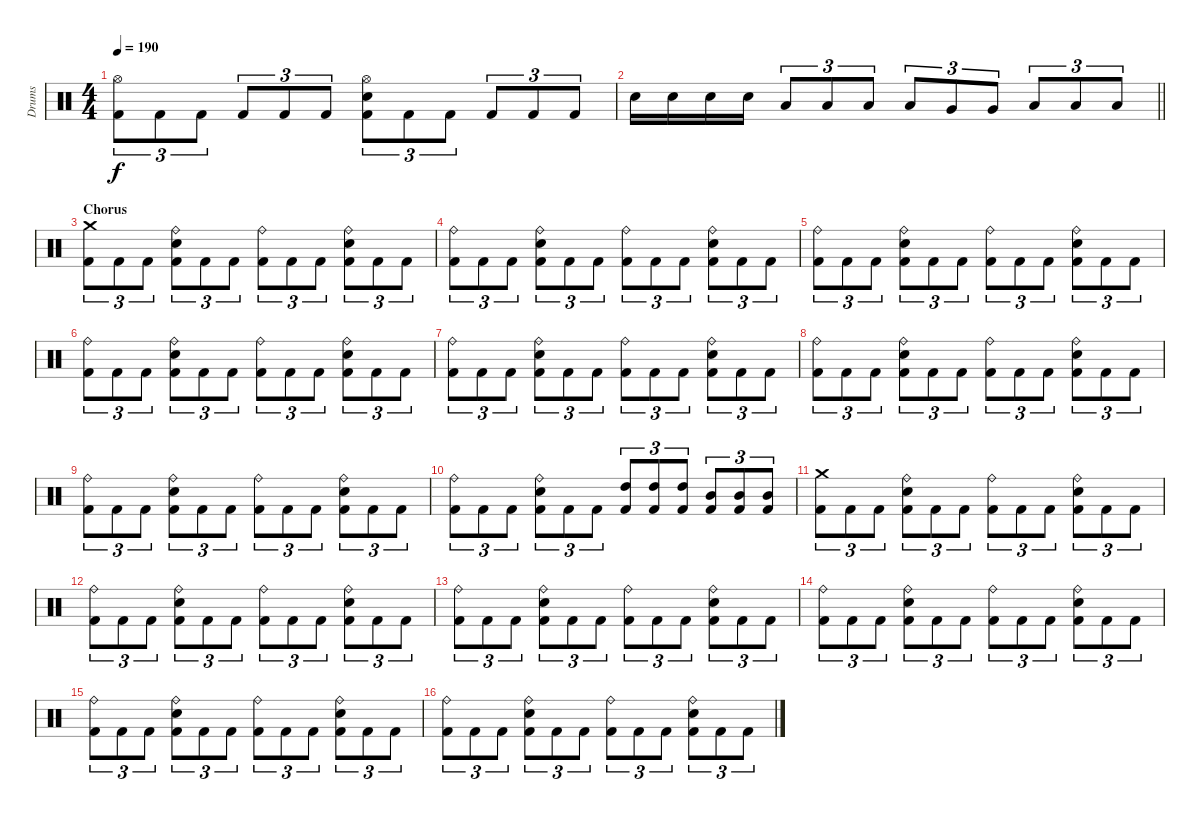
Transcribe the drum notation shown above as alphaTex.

\track ("Drums" "Drums") {instrument percussion}
\staff {score}
\articulation defaults
\ts (4 4)
\tempo 190
\clef neutral
\ks c
("Hi-Hat (open)" "Kick (hit) 2").8{tu (3 2) dy f} "Kick (hit) 2".8{tu (3 2)} "Kick (hit) 2".8{tu (3 2)} "Kick (hit) 2".8{tu (3 2)} "Kick (hit) 2".8{tu (3 2)} "Kick (hit) 2".8{tu (3 2)} ("Hi-Hat (open)" "Electric Snare (hit)" "Kick (hit) 2").8{tu (3 2)} "Kick (hit) 2".8{tu (3 2)} "Kick (hit) 2".8{tu (3 2)} "Kick (hit) 2".8{tu (3 2)} "Kick (hit) 2".8{tu (3 2)} "Kick (hit) 2".8{tu (3 2)} |
\barLineRight lightlight "Electric Snare (hit)".16 "Electric Snare (hit)".16 "Electric Snare (hit)".16 "Electric Snare (hit)".16 "Low Tom (hit)".8{tu (3 2)} "Low Tom (hit)".8{tu (3 2)} "Low Tom (hit)".8{tu (3 2)} "Low Tom (hit)".8{tu (3 2)} "Very Low Tom (hit)".8{tu (3 2)} "Very Low Tom (hit)".8{tu (3 2)} "Low Floor Tom (hit)".8{tu (3 2)} "Low Floor Tom (hit)".8{tu (3 2)} "Low Floor Tom (hit)".8{tu (3 2)}
|
\section ("" "Chorus")
("Crash medium (hit)" "Kick (hit) 2").8{tu (3 2)} "Kick (hit) 2".8{tu (3 2)} "Kick (hit) 2".8{tu (3 2)} ("Ride (bell)" "Electric Snare (hit)" "Kick (hit) 2").8{tu (3 2)} "Kick (hit) 2".8{tu (3 2)} "Kick (hit) 2".8{tu (3 2)} ("Ride (bell)" "Kick (hit) 2").8{tu (3 2)} "Kick (hit) 2".8{tu (3 2)} "Kick (hit) 2".8{tu (3 2)} ("Ride (bell)" "Electric Snare (hit)" "Kick (hit) 2").8{tu (3 2)} "Kick (hit) 2".8{tu (3 2)} "Kick (hit) 2".8{tu (3 2)} |
("Ride (bell)" "Kick (hit) 2").8{tu (3 2)} "Kick (hit) 2".8{tu (3 2)} "Kick (hit) 2".8{tu (3 2)} ("Ride (bell)" "Electric Snare (hit)" "Kick (hit) 2").8{tu (3 2)} "Kick (hit) 2".8{tu (3 2)} "Kick (hit) 2".8{tu (3 2)} ("Ride (bell)" "Kick (hit) 2").8{tu (3 2)} "Kick (hit) 2".8{tu (3 2)} "Kick (hit) 2".8{tu (3 2)} ("Ride (bell)" "Electric Snare (hit)" "Kick (hit) 2").8{tu (3 2)} "Kick (hit) 2".8{tu (3 2)} "Kick (hit) 2".8{tu (3 2)} |
("Ride (bell)" "Kick (hit) 2").8{tu (3 2)} "Kick (hit) 2".8{tu (3 2)} "Kick (hit) 2".8{tu (3 2)} ("Ride (bell)" "Electric Snare (hit)" "Kick (hit) 2").8{tu (3 2)} "Kick (hit) 2".8{tu (3 2)} "Kick (hit) 2".8{tu (3 2)} ("Ride (bell)" "Kick (hit) 2").8{tu (3 2)} "Kick (hit) 2".8{tu (3 2)} "Kick (hit) 2".8{tu (3 2)} ("Ride (bell)" "Electric Snare (hit)" "Kick (hit) 2").8{tu (3 2)} "Kick (hit) 2".8{tu (3 2)} "Kick (hit) 2".8{tu (3 2)} |
("Ride (bell)" "Kick (hit) 2").8{tu (3 2)} "Kick (hit) 2".8{tu (3 2)} "Kick (hit) 2".8{tu (3 2)} ("Ride (bell)" "Electric Snare (hit)" "Kick (hit) 2").8{tu (3 2)} "Kick (hit) 2".8{tu (3 2)} "Kick (hit) 2".8{tu (3 2)} ("Ride (bell)" "Kick (hit) 2").8{tu (3 2)} "Kick (hit) 2".8{tu (3 2)} "Kick (hit) 2".8{tu (3 2)} ("Ride (bell)" "Electric Snare (hit)" "Kick (hit) 2").8{tu (3 2)} "Kick (hit) 2".8{tu (3 2)} "Kick (hit) 2".8{tu (3 2)} |
("Ride (bell)" "Kick (hit) 2").8{tu (3 2)} "Kick (hit) 2".8{tu (3 2)} "Kick (hit) 2".8{tu (3 2)} ("Ride (bell)" "Electric Snare (hit)" "Kick (hit) 2").8{tu (3 2)} "Kick (hit) 2".8{tu (3 2)} "Kick (hit) 2".8{tu (3 2)} ("Ride (bell)" "Kick (hit) 2").8{tu (3 2)} "Kick (hit) 2".8{tu (3 2)} "Kick (hit) 2".8{tu (3 2)} ("Ride (bell)" "Electric Snare (hit)" "Kick (hit) 2").8{tu (3 2)} "Kick (hit) 2".8{tu (3 2)} "Kick (hit) 2".8{tu (3 2)} |
("Ride (bell)" "Kick (hit) 2").8{tu (3 2)} "Kick (hit) 2".8{tu (3 2)} "Kick (hit) 2".8{tu (3 2)} ("Ride (bell)" "Electric Snare (hit)" "Kick (hit) 2").8{tu (3 2)} "Kick (hit) 2".8{tu (3 2)} "Kick (hit) 2".8{tu (3 2)} ("Ride (bell)" "Kick (hit) 2").8{tu (3 2)} "Kick (hit) 2".8{tu (3 2)} "Kick (hit) 2".8{tu (3 2)} ("Ride (bell)" "Electric Snare (hit)" "Kick (hit) 2").8{tu (3 2)} "Kick (hit) 2".8{tu (3 2)} "Kick (hit) 2".8{tu (3 2)} |
("Ride (bell)" "Kick (hit) 2").8{tu (3 2)} "Kick (hit) 2".8{tu (3 2)} "Kick (hit) 2".8{tu (3 2)} ("Ride (bell)" "Electric Snare (hit)" "Kick (hit) 2").8{tu (3 2)} "Kick (hit) 2".8{tu (3 2)} "Kick (hit) 2".8{tu (3 2)} ("Ride (bell)" "Kick (hit) 2").8{tu (3 2)} "Kick (hit) 2".8{tu (3 2)} "Kick (hit) 2".8{tu (3 2)} ("Ride (bell)" "Electric Snare (hit)" "Kick (hit) 2").8{tu (3 2)} "Kick (hit) 2".8{tu (3 2)} "Kick (hit) 2".8{tu (3 2)} |
("Ride (bell)" "Kick (hit) 2").8{tu (3 2)} "Kick (hit) 2".8{tu (3 2)} "Kick (hit) 2".8{tu (3 2)} ("Ride (bell)" "Electric Snare (hit)" "Kick (hit) 2").8{tu (3 2)} "Kick (hit) 2".8{tu (3 2)} "Kick (hit) 2".8{tu (3 2)} ("High Tom (hit)" "Kick (hit) 2").8{tu (3 2)} ("High Tom (hit)" "Kick (hit) 2").8{tu (3 2)} ("High Tom (hit)" "Kick (hit) 2").8{tu (3 2)} ("Mid Tom (hit)" "Kick (hit) 2").8{tu (3 2)} ("Mid Tom (hit)" "Kick (hit) 2").8{tu (3 2)} ("Mid Tom (hit)" "Kick (hit) 2").8{tu (3 2)} |
("Crash medium (hit)" "Kick (hit) 2").8{tu (3 2)} "Kick (hit) 2".8{tu (3 2)} "Kick (hit) 2".8{tu (3 2)} ("Ride (bell)" "Electric Snare (hit)" "Kick (hit) 2").8{tu (3 2)} "Kick (hit) 2".8{tu (3 2)} "Kick (hit) 2".8{tu (3 2)} ("Ride (bell)" "Kick (hit) 2").8{tu (3 2)} "Kick (hit) 2".8{tu (3 2)} "Kick (hit) 2".8{tu (3 2)} ("Ride (bell)" "Electric Snare (hit)" "Kick (hit) 2").8{tu (3 2)} "Kick (hit) 2".8{tu (3 2)} "Kick (hit) 2".8{tu (3 2)} |
("Ride (bell)" "Kick (hit) 2").8{tu (3 2)} "Kick (hit) 2".8{tu (3 2)} "Kick (hit) 2".8{tu (3 2)} ("Ride (bell)" "Electric Snare (hit)" "Kick (hit) 2").8{tu (3 2)} "Kick (hit) 2".8{tu (3 2)} "Kick (hit) 2".8{tu (3 2)} ("Ride (bell)" "Kick (hit) 2").8{tu (3 2)} "Kick (hit) 2".8{tu (3 2)} "Kick (hit) 2".8{tu (3 2)} ("Ride (bell)" "Electric Snare (hit)" "Kick (hit) 2").8{tu (3 2)} "Kick (hit) 2".8{tu (3 2)} "Kick (hit) 2".8{tu (3 2)} |
("Ride (bell)" "Kick (hit) 2").8{tu (3 2)} "Kick (hit) 2".8{tu (3 2)} "Kick (hit) 2".8{tu (3 2)} ("Ride (bell)" "Electric Snare (hit)" "Kick (hit) 2").8{tu (3 2)} "Kick (hit) 2".8{tu (3 2)} "Kick (hit) 2".8{tu (3 2)} ("Ride (bell)" "Kick (hit) 2").8{tu (3 2)} "Kick (hit) 2".8{tu (3 2)} "Kick (hit) 2".8{tu (3 2)} ("Ride (bell)" "Electric Snare (hit)" "Kick (hit) 2").8{tu (3 2)} "Kick (hit) 2".8{tu (3 2)} "Kick (hit) 2".8{tu (3 2)} |
("Ride (bell)" "Kick (hit) 2").8{tu (3 2)} "Kick (hit) 2".8{tu (3 2)} "Kick (hit) 2".8{tu (3 2)} ("Ride (bell)" "Electric Snare (hit)" "Kick (hit) 2").8{tu (3 2)} "Kick (hit) 2".8{tu (3 2)} "Kick (hit) 2".8{tu (3 2)} ("Ride (bell)" "Kick (hit) 2").8{tu (3 2)} "Kick (hit) 2".8{tu (3 2)} "Kick (hit) 2".8{tu (3 2)} ("Ride (bell)" "Electric Snare (hit)" "Kick (hit) 2").8{tu (3 2)} "Kick (hit) 2".8{tu (3 2)} "Kick (hit) 2".8{tu (3 2)} |
("Ride (bell)" "Kick (hit) 2").8{tu (3 2)} "Kick (hit) 2".8{tu (3 2)} "Kick (hit) 2".8{tu (3 2)} ("Ride (bell)" "Electric Snare (hit)" "Kick (hit) 2").8{tu (3 2)} "Kick (hit) 2".8{tu (3 2)} "Kick (hit) 2".8{tu (3 2)} ("Ride (bell)" "Kick (hit) 2").8{tu (3 2)} "Kick (hit) 2".8{tu (3 2)} "Kick (hit) 2".8{tu (3 2)} ("Ride (bell)" "Electric Snare (hit)" "Kick (hit) 2").8{tu (3 2)} "Kick (hit) 2".8{tu (3 2)} "Kick (hit) 2".8{tu (3 2)} |
("Ride (bell)" "Kick (hit) 2").8{tu (3 2)} "Kick (hit) 2".8{tu (3 2)} "Kick (hit) 2".8{tu (3 2)} ("Ride (bell)" "Electric Snare (hit)" "Kick (hit) 2").8{tu (3 2)} "Kick (hit) 2".8{tu (3 2)} "Kick (hit) 2".8{tu (3 2)} ("Ride (bell)" "Kick (hit) 2").8{tu (3 2)} "Kick (hit) 2".8{tu (3 2)} "Kick (hit) 2".8{tu (3 2)} ("Ride (bell)" "Electric Snare (hit)" "Kick (hit) 2").8{tu (3 2)} "Kick (hit) 2".8{tu (3 2)} "Kick (hit) 2".8{tu (3 2)}
